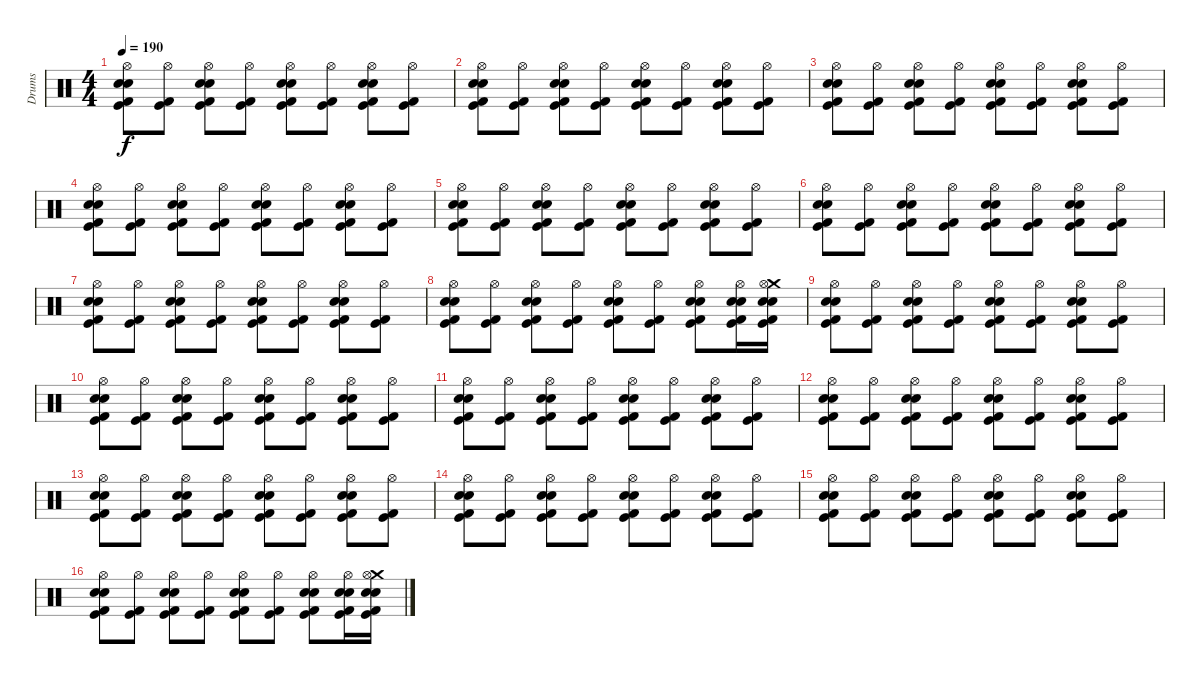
\track ("Drums" "Drums") {instrument percussion}
\staff {score}
\articulation defaults
\ts (4 4)
\tempo 190
\clef neutral
\ks c
("Hi-Hat (open)" "Kick (hit) 2" "Snare (hit) 2" "Electric Snare (hit)" "Kick (hit)").8{dy f} ("Hi-Hat (open)" "Kick (hit) 2" "Kick (hit)").8 ("Snare (hit) 2" "Hi-Hat (open)" "Electric Snare (hit)" "Kick (hit)" "Kick (hit) 2").8 ("Hi-Hat (open)" "Kick (hit) 2" "Kick (hit)").8 ("Snare (hit) 2" "Hi-Hat (open)" "Electric Snare (hit)" "Kick (hit)" "Kick (hit) 2").8 ("Hi-Hat (open)" "Kick (hit) 2" "Kick (hit)").8 ("Snare (hit) 2" "Hi-Hat (open)" "Electric Snare (hit)" "Kick (hit)" "Kick (hit) 2").8 ("Hi-Hat (open)" "Kick (hit) 2" "Kick (hit)").8 |
("Hi-Hat (open)" "Kick (hit) 2" "Snare (hit) 2" "Electric Snare (hit)" "Kick (hit)").8 ("Hi-Hat (open)" "Kick (hit) 2" "Kick (hit)").8 ("Snare (hit) 2" "Hi-Hat (open)" "Electric Snare (hit)" "Kick (hit)" "Kick (hit) 2").8 ("Hi-Hat (open)" "Kick (hit) 2" "Kick (hit)").8 ("Snare (hit) 2" "Hi-Hat (open)" "Electric Snare (hit)" "Kick (hit)" "Kick (hit) 2").8 ("Hi-Hat (open)" "Kick (hit) 2" "Kick (hit)").8 ("Snare (hit) 2" "Hi-Hat (open)" "Electric Snare (hit)" "Kick (hit)" "Kick (hit) 2").8 ("Hi-Hat (open)" "Kick (hit) 2" "Kick (hit)").8 |
("Hi-Hat (open)" "Kick (hit) 2" "Snare (hit) 2" "Electric Snare (hit)" "Kick (hit)").8 ("Hi-Hat (open)" "Kick (hit) 2" "Kick (hit)").8 ("Snare (hit) 2" "Hi-Hat (open)" "Electric Snare (hit)" "Kick (hit)" "Kick (hit) 2").8 ("Hi-Hat (open)" "Kick (hit) 2" "Kick (hit)").8 ("Snare (hit) 2" "Hi-Hat (open)" "Electric Snare (hit)" "Kick (hit)" "Kick (hit) 2").8 ("Hi-Hat (open)" "Kick (hit) 2" "Kick (hit)").8 ("Snare (hit) 2" "Hi-Hat (open)" "Electric Snare (hit)" "Kick (hit)" "Kick (hit) 2").8 ("Hi-Hat (open)" "Kick (hit) 2" "Kick (hit)").8 |
("Hi-Hat (open)" "Kick (hit) 2" "Snare (hit) 2" "Electric Snare (hit)" "Kick (hit)").8 ("Hi-Hat (open)" "Kick (hit) 2" "Kick (hit)").8 ("Snare (hit) 2" "Hi-Hat (open)" "Electric Snare (hit)" "Kick (hit)" "Kick (hit) 2").8 ("Hi-Hat (open)" "Kick (hit) 2" "Kick (hit)").8 ("Snare (hit) 2" "Hi-Hat (open)" "Electric Snare (hit)" "Kick (hit)" "Kick (hit) 2").8 ("Hi-Hat (open)" "Kick (hit) 2" "Kick (hit)").8 ("Snare (hit) 2" "Hi-Hat (open)" "Electric Snare (hit)" "Kick (hit)" "Kick (hit) 2").8 ("Hi-Hat (open)" "Kick (hit) 2" "Kick (hit)").8 |
("Hi-Hat (open)" "Kick (hit) 2" "Snare (hit) 2" "Electric Snare (hit)" "Kick (hit)").8 ("Hi-Hat (open)" "Kick (hit) 2" "Kick (hit)").8 ("Snare (hit) 2" "Hi-Hat (open)" "Electric Snare (hit)" "Kick (hit)" "Kick (hit) 2").8 ("Hi-Hat (open)" "Kick (hit) 2" "Kick (hit)").8 ("Snare (hit) 2" "Hi-Hat (open)" "Electric Snare (hit)" "Kick (hit)" "Kick (hit) 2").8 ("Hi-Hat (open)" "Kick (hit) 2" "Kick (hit)").8 ("Snare (hit) 2" "Hi-Hat (open)" "Electric Snare (hit)" "Kick (hit)" "Kick (hit) 2").8 ("Hi-Hat (open)" "Kick (hit) 2" "Kick (hit)").8 |
("Hi-Hat (open)" "Kick (hit) 2" "Snare (hit) 2" "Electric Snare (hit)" "Kick (hit)").8 ("Hi-Hat (open)" "Kick (hit) 2" "Kick (hit)").8 ("Snare (hit) 2" "Hi-Hat (open)" "Electric Snare (hit)" "Kick (hit)" "Kick (hit) 2").8 ("Hi-Hat (open)" "Kick (hit) 2" "Kick (hit)").8 ("Snare (hit) 2" "Hi-Hat (open)" "Electric Snare (hit)" "Kick (hit)" "Kick (hit) 2").8 ("Hi-Hat (open)" "Kick (hit) 2" "Kick (hit)").8 ("Snare (hit) 2" "Hi-Hat (open)" "Electric Snare (hit)" "Kick (hit)" "Kick (hit) 2").8 ("Hi-Hat (open)" "Kick (hit) 2" "Kick (hit)").8 |
("Hi-Hat (open)" "Kick (hit) 2" "Snare (hit) 2" "Electric Snare (hit)" "Kick (hit)").8 ("Hi-Hat (open)" "Kick (hit) 2" "Kick (hit)").8 ("Snare (hit) 2" "Hi-Hat (open)" "Electric Snare (hit)" "Kick (hit)" "Kick (hit) 2").8 ("Hi-Hat (open)" "Kick (hit) 2" "Kick (hit)").8 ("Snare (hit) 2" "Hi-Hat (open)" "Electric Snare (hit)" "Kick (hit)" "Kick (hit) 2").8 ("Hi-Hat (open)" "Kick (hit) 2" "Kick (hit)").8 ("Snare (hit) 2" "Hi-Hat (open)" "Electric Snare (hit)" "Kick (hit)" "Kick (hit) 2").8 ("Hi-Hat (open)" "Kick (hit) 2" "Kick (hit)").8 |
("Hi-Hat (open)" "Kick (hit) 2" "Snare (hit) 2" "Electric Snare (hit)" "Kick (hit)").8 ("Hi-Hat (open)" "Kick (hit) 2" "Kick (hit)").8 ("Snare (hit) 2" "Hi-Hat (open)" "Electric Snare (hit)" "Kick (hit)" "Kick (hit) 2").8 ("Hi-Hat (open)" "Kick (hit) 2" "Kick (hit)").8 ("Snare (hit) 2" "Hi-Hat (open)" "Electric Snare (hit)" "Kick (hit)" "Kick (hit) 2").8 ("Hi-Hat (open)" "Kick (hit) 2" "Kick (hit)").8 ("Snare (hit) 2" "Hi-Hat (open)" "Electric Snare (hit)" "Kick (hit)" "Kick (hit) 2").8 ("Electric Snare (hit)" "Hi-Hat (open)" "Kick (hit) 2" "Kick (hit)" "Snare (hit) 2").16 ("Crash medium (hit)" "Electric Snare (hit)" "Hi-Hat (open)" "Kick (hit) 2" "Kick (hit)" "Snare (hit) 2").16 |
("Hi-Hat (open)" "Kick (hit) 2" "Snare (hit) 2" "Electric Snare (hit)" "Kick (hit)").8 ("Hi-Hat (open)" "Kick (hit) 2" "Kick (hit)").8 ("Snare (hit) 2" "Hi-Hat (open)" "Electric Snare (hit)" "Kick (hit)" "Kick (hit) 2").8 ("Hi-Hat (open)" "Kick (hit) 2" "Kick (hit)").8 ("Snare (hit) 2" "Hi-Hat (open)" "Electric Snare (hit)" "Kick (hit)" "Kick (hit) 2").8 ("Hi-Hat (open)" "Kick (hit) 2" "Kick (hit)").8 ("Snare (hit) 2" "Hi-Hat (open)" "Electric Snare (hit)" "Kick (hit)" "Kick (hit) 2").8 ("Hi-Hat (open)" "Kick (hit) 2" "Kick (hit)").8 |
("Hi-Hat (open)" "Kick (hit) 2" "Snare (hit) 2" "Electric Snare (hit)" "Kick (hit)").8 ("Hi-Hat (open)" "Kick (hit) 2" "Kick (hit)").8 ("Snare (hit) 2" "Hi-Hat (open)" "Electric Snare (hit)" "Kick (hit)" "Kick (hit) 2").8 ("Hi-Hat (open)" "Kick (hit) 2" "Kick (hit)").8 ("Snare (hit) 2" "Hi-Hat (open)" "Electric Snare (hit)" "Kick (hit)" "Kick (hit) 2").8 ("Hi-Hat (open)" "Kick (hit) 2" "Kick (hit)").8 ("Snare (hit) 2" "Hi-Hat (open)" "Electric Snare (hit)" "Kick (hit)" "Kick (hit) 2").8 ("Hi-Hat (open)" "Kick (hit) 2" "Kick (hit)").8 |
("Hi-Hat (open)" "Kick (hit) 2" "Snare (hit) 2" "Electric Snare (hit)" "Kick (hit)").8 ("Hi-Hat (open)" "Kick (hit) 2" "Kick (hit)").8 ("Snare (hit) 2" "Hi-Hat (open)" "Electric Snare (hit)" "Kick (hit)" "Kick (hit) 2").8 ("Hi-Hat (open)" "Kick (hit) 2" "Kick (hit)").8 ("Snare (hit) 2" "Hi-Hat (open)" "Electric Snare (hit)" "Kick (hit)" "Kick (hit) 2").8 ("Hi-Hat (open)" "Kick (hit) 2" "Kick (hit)").8 ("Snare (hit) 2" "Hi-Hat (open)" "Electric Snare (hit)" "Kick (hit)" "Kick (hit) 2").8 ("Hi-Hat (open)" "Kick (hit) 2" "Kick (hit)").8 |
("Hi-Hat (open)" "Kick (hit) 2" "Snare (hit) 2" "Electric Snare (hit)" "Kick (hit)").8 ("Hi-Hat (open)" "Kick (hit) 2" "Kick (hit)").8 ("Snare (hit) 2" "Hi-Hat (open)" "Electric Snare (hit)" "Kick (hit)" "Kick (hit) 2").8 ("Hi-Hat (open)" "Kick (hit) 2" "Kick (hit)").8 ("Snare (hit) 2" "Hi-Hat (open)" "Electric Snare (hit)" "Kick (hit)" "Kick (hit) 2").8 ("Hi-Hat (open)" "Kick (hit) 2" "Kick (hit)").8 ("Snare (hit) 2" "Hi-Hat (open)" "Electric Snare (hit)" "Kick (hit)" "Kick (hit) 2").8 ("Hi-Hat (open)" "Kick (hit) 2" "Kick (hit)").8 |
("Hi-Hat (open)" "Kick (hit) 2" "Snare (hit) 2" "Electric Snare (hit)" "Kick (hit)").8 ("Hi-Hat (open)" "Kick (hit) 2" "Kick (hit)").8 ("Snare (hit) 2" "Hi-Hat (open)" "Electric Snare (hit)" "Kick (hit)" "Kick (hit) 2").8 ("Hi-Hat (open)" "Kick (hit) 2" "Kick (hit)").8 ("Snare (hit) 2" "Hi-Hat (open)" "Electric Snare (hit)" "Kick (hit)" "Kick (hit) 2").8 ("Hi-Hat (open)" "Kick (hit) 2" "Kick (hit)").8 ("Snare (hit) 2" "Hi-Hat (open)" "Electric Snare (hit)" "Kick (hit)" "Kick (hit) 2").8 ("Hi-Hat (open)" "Kick (hit) 2" "Kick (hit)").8 |
("Hi-Hat (open)" "Kick (hit) 2" "Snare (hit) 2" "Electric Snare (hit)" "Kick (hit)").8 ("Hi-Hat (open)" "Kick (hit) 2" "Kick (hit)").8 ("Snare (hit) 2" "Hi-Hat (open)" "Electric Snare (hit)" "Kick (hit)" "Kick (hit) 2").8 ("Hi-Hat (open)" "Kick (hit) 2" "Kick (hit)").8 ("Snare (hit) 2" "Hi-Hat (open)" "Electric Snare (hit)" "Kick (hit)" "Kick (hit) 2").8 ("Hi-Hat (open)" "Kick (hit) 2" "Kick (hit)").8 ("Snare (hit) 2" "Hi-Hat (open)" "Electric Snare (hit)" "Kick (hit)" "Kick (hit) 2").8 ("Hi-Hat (open)" "Kick (hit) 2" "Kick (hit)").8 |
("Hi-Hat (open)" "Kick (hit) 2" "Snare (hit) 2" "Electric Snare (hit)" "Kick (hit)").8 ("Hi-Hat (open)" "Kick (hit) 2" "Kick (hit)").8 ("Snare (hit) 2" "Hi-Hat (open)" "Electric Snare (hit)" "Kick (hit)" "Kick (hit) 2").8 ("Hi-Hat (open)" "Kick (hit) 2" "Kick (hit)").8 ("Snare (hit) 2" "Hi-Hat (open)" "Electric Snare (hit)" "Kick (hit)" "Kick (hit) 2").8 ("Hi-Hat (open)" "Kick (hit) 2" "Kick (hit)").8 ("Snare (hit) 2" "Hi-Hat (open)" "Electric Snare (hit)" "Kick (hit)" "Kick (hit) 2").8 ("Hi-Hat (open)" "Kick (hit) 2" "Kick (hit)").8 |
("Hi-Hat (open)" "Kick (hit) 2" "Snare (hit) 2" "Electric Snare (hit)" "Kick (hit)").8 ("Hi-Hat (open)" "Kick (hit) 2" "Kick (hit)").8 ("Snare (hit) 2" "Hi-Hat (open)" "Electric Snare (hit)" "Kick (hit)" "Kick (hit) 2").8 ("Hi-Hat (open)" "Kick (hit) 2" "Kick (hit)").8 ("Snare (hit) 2" "Hi-Hat (open)" "Electric Snare (hit)" "Kick (hit)" "Kick (hit) 2").8 ("Hi-Hat (open)" "Kick (hit) 2" "Kick (hit)").8 ("Snare (hit) 2" "Hi-Hat (open)" "Electric Snare (hit)" "Kick (hit)" "Kick (hit) 2").8 ("Electric Snare (hit)" "Hi-Hat (open)" "Kick (hit) 2" "Kick (hit)" "Snare (hit) 2").16 ("Crash medium (hit)" "Electric Snare (hit)" "Hi-Hat (open)" "Kick (hit) 2" "Kick (hit)" "Snare (hit) 2").16
